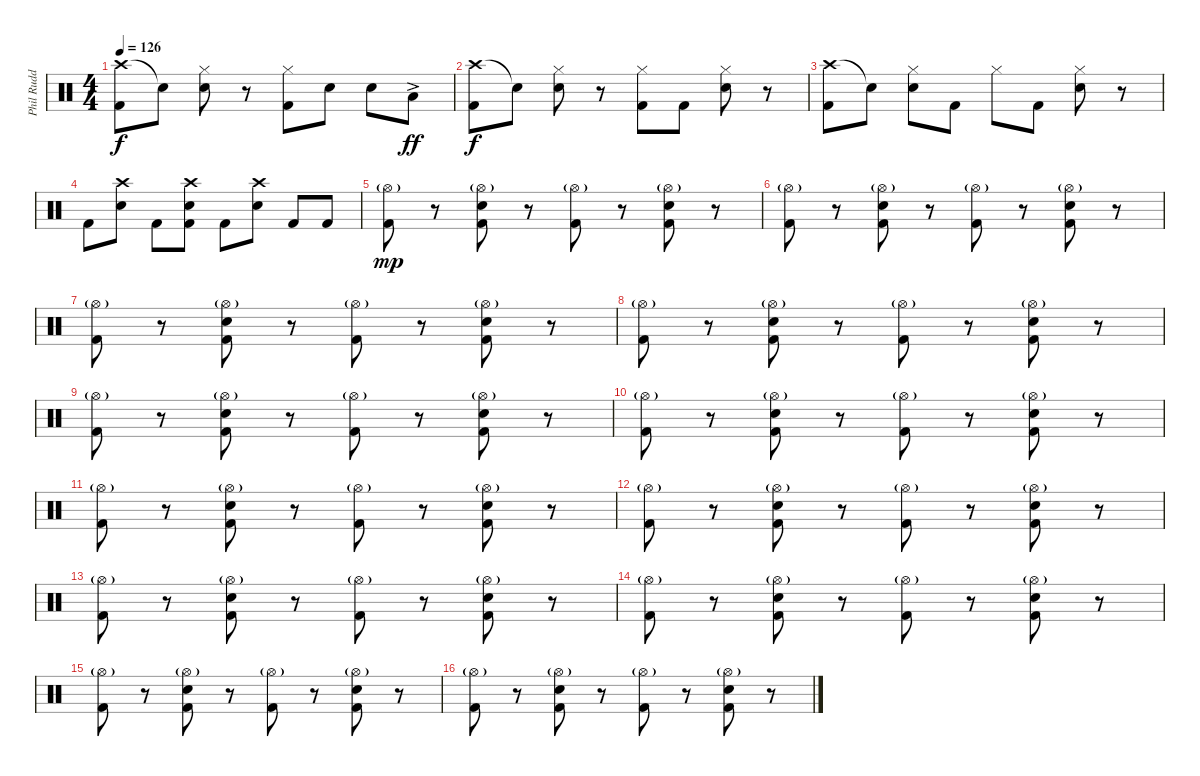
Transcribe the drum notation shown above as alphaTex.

\track ("Phil Rudd" "Phil Rudd") {instrument percussion}
\staff {score}
\articulation defaults
\ts (4 4)
\tempo 126
\clef neutral
\ks c
("Crash high (hit)" "Kick (hit) 2").8{dy f} "Snare (hit)"{t}.8 ("Hi-Hat (closed)" "Snare (hit) 2").8 r.8 ("Hi-Hat (closed)" "Kick (hit) 2").8 "Snare (hit) 2".8 "Snare (hit) 2".8 "Low Tom (hit)"{ac}.8{dy ff} |
("Crash high (hit)" "Kick (hit) 2").8{dy f} "Snare (hit)"{t}.8 ("Hi-Hat (closed)" "Snare (hit) 2").8 r.8 ("Hi-Hat (closed)" "Kick (hit) 2").8 "Kick (hit) 2".8 ("Hi-Hat (closed)" "Snare (hit) 2").8 r.8 |
("Crash high (hit)" "Kick (hit) 2").8 "Snare (hit)"{t}.8 ("Hi-Hat (closed)" "Snare (hit) 2").8 "Kick (hit) 2".8 "Hi-Hat (closed)".8 "Kick (hit) 2".8 ("Hi-Hat (closed)" "Snare (hit) 2").8 r.8 |
"Kick (hit) 2".8 ("Crash high (hit)" "Snare (hit) 2").8 "Kick (hit) 2".8 ("Crash high (hit)" "Snare (hit) 2" "Kick (hit) 2").8 "Kick (hit) 2".8 ("Crash high (hit)" "Snare (hit) 2").8 "Kick (hit) 2".8 "Kick (hit) 2".8 |
("Hi-Hat (open)"{g} "Kick (hit) 2").8{dy mp} r.8 ("Hi-Hat (open)"{g} "Snare (hit) 2" "Kick (hit) 2").8 r.8 ("Hi-Hat (open)"{g} "Kick (hit) 2").8 r.8 ("Hi-Hat (open)"{g} "Snare (hit) 2" "Kick (hit) 2").8 r.8 |
("Hi-Hat (open)"{g} "Kick (hit) 2").8 r.8 ("Hi-Hat (open)"{g} "Snare (hit) 2" "Kick (hit) 2").8 r.8 ("Hi-Hat (open)"{g} "Kick (hit) 2").8 r.8 ("Hi-Hat (open)"{g} "Snare (hit) 2" "Kick (hit) 2").8 r.8 |
("Hi-Hat (open)"{g} "Kick (hit) 2").8 r.8 ("Hi-Hat (open)"{g} "Snare (hit) 2" "Kick (hit) 2").8 r.8 ("Hi-Hat (open)"{g} "Kick (hit) 2").8 r.8 ("Hi-Hat (open)"{g} "Snare (hit) 2" "Kick (hit) 2").8 r.8 |
("Hi-Hat (open)"{g} "Kick (hit) 2").8 r.8 ("Hi-Hat (open)"{g} "Snare (hit) 2" "Kick (hit) 2").8 r.8 ("Hi-Hat (open)"{g} "Kick (hit) 2").8 r.8 ("Hi-Hat (open)"{g} "Snare (hit) 2" "Kick (hit) 2").8 r.8 |
("Hi-Hat (open)"{g} "Kick (hit) 2").8 r.8 ("Hi-Hat (open)"{g} "Snare (hit) 2" "Kick (hit) 2").8 r.8 ("Hi-Hat (open)"{g} "Kick (hit) 2").8 r.8 ("Hi-Hat (open)"{g} "Snare (hit) 2" "Kick (hit) 2").8 r.8 |
("Hi-Hat (open)"{g} "Kick (hit) 2").8 r.8 ("Hi-Hat (open)"{g} "Snare (hit) 2" "Kick (hit) 2").8 r.8 ("Hi-Hat (open)"{g} "Kick (hit) 2").8 r.8 ("Hi-Hat (open)"{g} "Snare (hit) 2" "Kick (hit) 2").8 r.8 |
("Hi-Hat (open)"{g} "Kick (hit) 2").8 r.8 ("Hi-Hat (open)"{g} "Snare (hit) 2" "Kick (hit) 2").8 r.8 ("Hi-Hat (open)"{g} "Kick (hit) 2").8 r.8 ("Hi-Hat (open)"{g} "Snare (hit) 2" "Kick (hit) 2").8 r.8 |
("Hi-Hat (open)"{g} "Kick (hit) 2").8 r.8 ("Hi-Hat (open)"{g} "Snare (hit) 2" "Kick (hit) 2").8 r.8 ("Hi-Hat (open)"{g} "Kick (hit) 2").8 r.8 ("Hi-Hat (open)"{g} "Snare (hit) 2" "Kick (hit) 2").8 r.8 |
("Hi-Hat (open)"{g} "Kick (hit) 2").8 r.8 ("Hi-Hat (open)"{g} "Snare (hit) 2" "Kick (hit) 2").8 r.8 ("Hi-Hat (open)"{g} "Kick (hit) 2").8 r.8 ("Hi-Hat (open)"{g} "Snare (hit) 2" "Kick (hit) 2").8 r.8 |
("Hi-Hat (open)"{g} "Kick (hit) 2").8 r.8 ("Hi-Hat (open)"{g} "Snare (hit) 2" "Kick (hit) 2").8 r.8 ("Hi-Hat (open)"{g} "Kick (hit) 2").8 r.8 ("Hi-Hat (open)"{g} "Snare (hit) 2" "Kick (hit) 2").8 r.8 |
("Hi-Hat (open)"{g} "Kick (hit) 2").8 r.8 ("Hi-Hat (open)"{g} "Snare (hit) 2" "Kick (hit) 2").8 r.8 ("Hi-Hat (open)"{g} "Kick (hit) 2").8 r.8 ("Hi-Hat (open)"{g} "Snare (hit) 2" "Kick (hit) 2").8 r.8 |
("Hi-Hat (open)"{g} "Kick (hit) 2").8 r.8 ("Hi-Hat (open)"{g} "Snare (hit) 2" "Kick (hit) 2").8 r.8 ("Hi-Hat (open)"{g} "Kick (hit) 2").8 r.8 ("Hi-Hat (open)"{g} "Snare (hit) 2" "Kick (hit) 2").8 r.8
